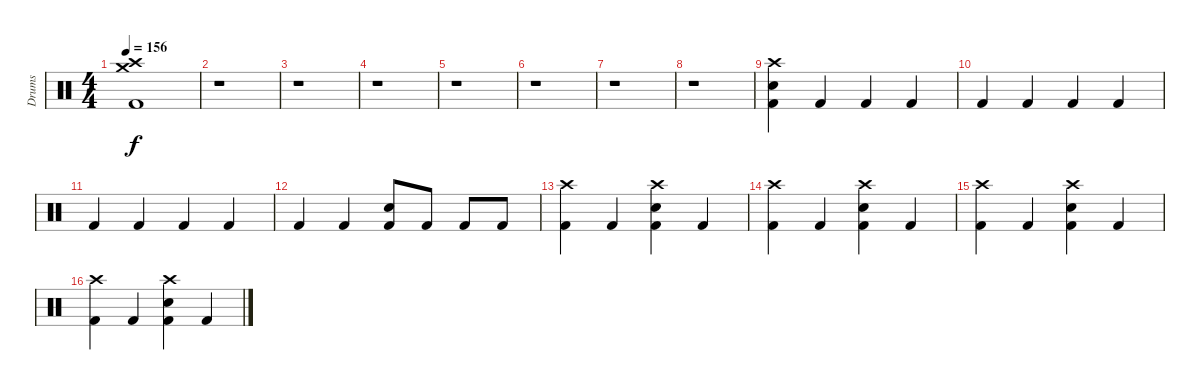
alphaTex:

\track ("Drums" "Drums") {instrument percussion}
\staff {score}
\articulation defaults
\ts (4 4)
\tempo 156
\clef neutral
\ks c
("Crash medium (hit)" "Crash high (hit)" "Kick (hit) 2").1{dy f} |
r.1 |
r.1 |
r.1 |
r.1 |
r.1 |
r.1 |
r.1 |
("Crash high (hit)" "Snare (hit) 2" "Kick (hit) 2").4 "Kick (hit) 2".4 "Kick (hit) 2".4 "Kick (hit) 2".4 |
"Kick (hit) 2".4 "Kick (hit) 2".4 "Kick (hit) 2".4 "Kick (hit) 2".4 |
"Kick (hit) 2".4 "Kick (hit) 2".4 "Kick (hit) 2".4 "Kick (hit) 2".4 |
"Kick (hit) 2".4 "Kick (hit) 2".4 ("Snare (hit) 2" "Kick (hit) 2").8 "Kick (hit) 2".8 "Kick (hit) 2".8 "Kick (hit) 2".8 |
("Crash high (hit)" "Kick (hit) 2").4 "Kick (hit) 2".4 ("Crash high (hit)" "Snare (hit) 2" "Kick (hit) 2").4 "Kick (hit) 2".4 |
("Crash high (hit)" "Kick (hit) 2").4 "Kick (hit) 2".4 ("Crash high (hit)" "Snare (hit) 2" "Kick (hit) 2").4 "Kick (hit) 2".4 |
("Crash high (hit)" "Kick (hit) 2").4 "Kick (hit) 2".4 ("Crash high (hit)" "Snare (hit) 2" "Kick (hit) 2").4 "Kick (hit) 2".4 |
("Crash high (hit)" "Kick (hit) 2").4 "Kick (hit) 2".4 ("Crash high (hit)" "Snare (hit) 2" "Kick (hit) 2").4 "Kick (hit) 2".4
